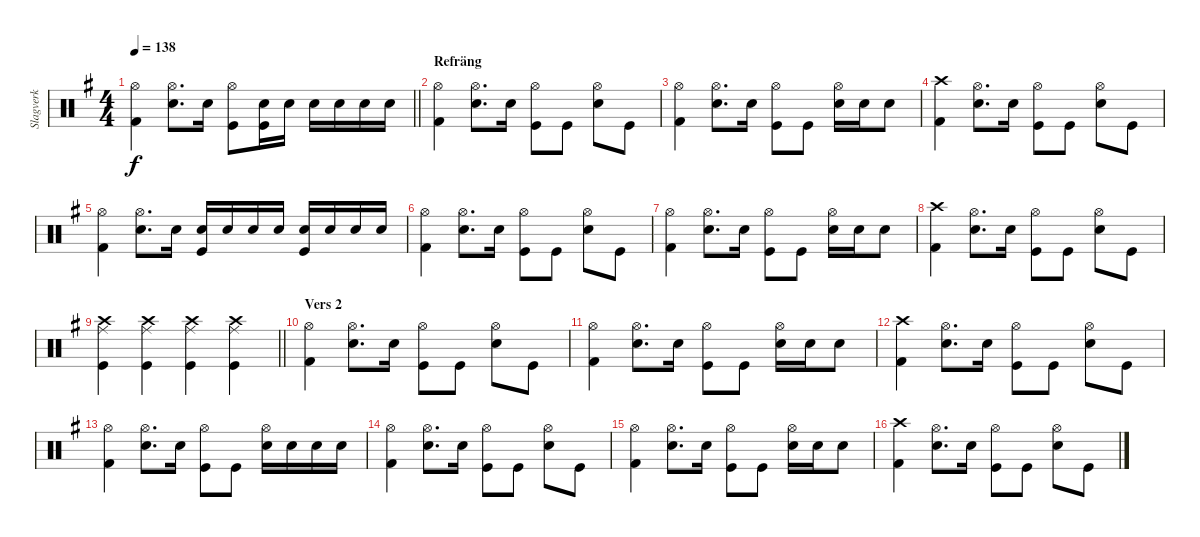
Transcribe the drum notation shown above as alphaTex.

\track ("Slagverk" "Slagverk") {instrument percussion}
\staff {score}
\articulation defaults
\ts (4 4)
\tempo 138
\clef neutral
\barLineRight lightlight
\ks g
("Hi-Hat (open)" "Kick (hit) 2").4{dy f} ("Hi-Hat (open)" "Snare (hit) 2").8{d} "Snare (hit) 2".16 ("Hi-Hat (open)" "Kick (hit)").8 ("Snare (hit) 2" "Kick (hit)").16 "Snare (hit) 2".16 "Snare (hit) 2".16 "Snare (hit) 2".16 "Snare (hit) 2".16 "Snare (hit) 2".16 |
\section ("" "Refräng")
("Hi-Hat (open)" "Kick (hit) 2").4 ("Hi-Hat (open)" "Snare (hit) 2").8{d} "Snare (hit) 2".16 ("Hi-Hat (open)" "Kick (hit)").8 "Kick (hit)".8 ("Hi-Hat (open)" "Snare (hit) 2").8 "Kick (hit)".8 |
("Hi-Hat (open)" "Kick (hit) 2").4 ("Hi-Hat (open)" "Snare (hit) 2").8{d} "Snare (hit) 2".16 ("Hi-Hat (open)" "Kick (hit)").8 "Kick (hit)".8 ("Hi-Hat (open)" "Snare (hit) 2").16 "Snare (hit) 2".16 "Snare (hit) 2".8 |
("Crash high (hit)" "Kick (hit) 2").4 ("Hi-Hat (open)" "Snare (hit) 2").8{d} "Snare (hit) 2".16 ("Hi-Hat (open)" "Kick (hit)").8 "Kick (hit)".8 ("Hi-Hat (open)" "Snare (hit) 2").8 "Kick (hit)".8 |
("Hi-Hat (open)" "Kick (hit) 2").4 ("Hi-Hat (open)" "Snare (hit) 2").8{d} "Snare (hit) 2".16 ("Snare (hit) 2" "Kick (hit)").16 "Snare (hit) 2".16 "Snare (hit) 2".16 "Snare (hit) 2".16 ("Snare (hit) 2" "Kick (hit)").16 "Snare (hit) 2".16 "Snare (hit) 2".16 "Snare (hit) 2".16 |
("Hi-Hat (open)" "Kick (hit) 2").4 ("Hi-Hat (open)" "Snare (hit) 2").8{d} "Snare (hit) 2".16 ("Hi-Hat (open)" "Kick (hit)").8 "Kick (hit)".8 ("Hi-Hat (open)" "Snare (hit) 2").8 "Kick (hit)".8 |
("Hi-Hat (open)" "Kick (hit) 2").4 ("Hi-Hat (open)" "Snare (hit) 2").8{d} "Snare (hit) 2".16 ("Hi-Hat (open)" "Kick (hit)").8 "Kick (hit)".8 ("Hi-Hat (open)" "Snare (hit) 2").16 "Snare (hit) 2".16 "Snare (hit) 2".8 |
("Crash high (hit)" "Kick (hit) 2").4 ("Hi-Hat (open)" "Snare (hit) 2").8{d} "Snare (hit) 2".16 ("Hi-Hat (open)" "Kick (hit)").8 "Kick (hit)".8 ("Hi-Hat (open)" "Snare (hit) 2").8 "Kick (hit)".8 |
\barLineRight lightlight
("Crash high (hit)" "Ride (middle)" "Kick (hit)").4 ("Crash high (hit)" "Ride (middle)" "Kick (hit)").4 ("Crash high (hit)" "Ride (middle)" "Kick (hit)").4 ("Crash high (hit)" "Ride (middle)" "Kick (hit)").4 |
\section ("" "Vers 2")
("Hi-Hat (open)" "Kick (hit) 2").4 ("Hi-Hat (open)" "Snare (hit) 2").8{d} "Snare (hit) 2".16 ("Hi-Hat (open)" "Kick (hit)").8 "Kick (hit)".8 ("Hi-Hat (open)" "Snare (hit) 2").8 "Kick (hit)".8 |
("Hi-Hat (open)" "Kick (hit) 2").4 ("Hi-Hat (open)" "Snare (hit) 2").8{d} "Snare (hit) 2".16 ("Hi-Hat (open)" "Kick (hit)").8 "Kick (hit)".8 ("Hi-Hat (open)" "Snare (hit) 2").16 "Snare (hit) 2".16 "Snare (hit) 2".8 |
("Crash high (hit)" "Kick (hit) 2").4 ("Hi-Hat (open)" "Snare (hit) 2").8{d} "Snare (hit) 2".16 ("Hi-Hat (open)" "Kick (hit)").8 "Kick (hit)".8 ("Hi-Hat (open)" "Snare (hit) 2").8 "Kick (hit)".8 |
("Hi-Hat (open)" "Kick (hit) 2").4 ("Hi-Hat (open)" "Snare (hit) 2").8{d} "Snare (hit) 2".16 ("Hi-Hat (open)" "Kick (hit)").8 "Kick (hit)".8 ("Hi-Hat (open)" "Snare (hit) 2").16 "Snare (hit) 2".16 "Snare (hit) 2".16 "Snare (hit) 2".16 |
("Hi-Hat (open)" "Kick (hit) 2").4 ("Hi-Hat (open)" "Snare (hit) 2").8{d} "Snare (hit) 2".16 ("Hi-Hat (open)" "Kick (hit)").8 "Kick (hit)".8 ("Hi-Hat (open)" "Snare (hit) 2").8 "Kick (hit)".8 |
("Hi-Hat (open)" "Kick (hit) 2").4 ("Hi-Hat (open)" "Snare (hit) 2").8{d} "Snare (hit) 2".16 ("Hi-Hat (open)" "Kick (hit)").8 "Kick (hit)".8 ("Hi-Hat (open)" "Snare (hit) 2").16 "Snare (hit) 2".16 "Snare (hit) 2".8 |
("Crash high (hit)" "Kick (hit) 2").4 ("Hi-Hat (open)" "Snare (hit) 2").8{d} "Snare (hit) 2".16 ("Hi-Hat (open)" "Kick (hit)").8 "Kick (hit)".8 ("Hi-Hat (open)" "Snare (hit) 2").8 "Kick (hit)".8
